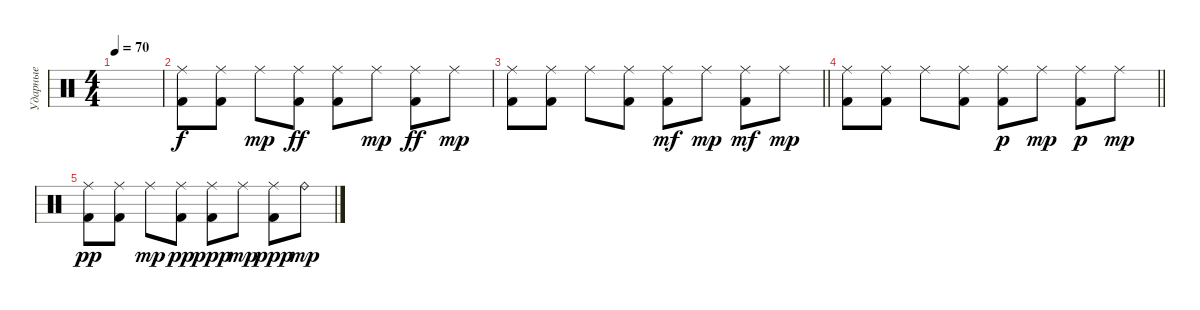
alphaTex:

\track ("Ударные" "Ударные") {instrument percussion}
\staff {score}
\articulation defaults
\ts (4 4)
\tempo 70
\clef neutral
\ks c
|
("Ride (middle)" "Kick (hit) 2").8 ("Ride (middle)" "Kick (hit) 2").8 "Ride (middle)".8{dy mp} ("Ride (middle)" "Kick (hit) 2").8{dy ff} ("Ride (middle)" "Kick (hit) 2").8 "Ride (middle)".8{dy mp} ("Ride (middle)" "Kick (hit) 2").8{dy ff} "Ride (middle)".8{dy mp} |
\barLineRight lightlight
("Ride (middle)" "Kick (hit) 2").8 ("Ride (middle)" "Kick (hit) 2").8 "Ride (middle)".8 ("Ride (middle)" "Kick (hit) 2").8 ("Ride (middle)" "Kick (hit) 2").8{dy mf} "Ride (middle)".8{dy mp} ("Ride (middle)" "Kick (hit) 2").8{dy mf} "Ride (middle)".8{dy mp} |
\barLineRight lightlight
("Ride (middle)" "Kick (hit) 2").8 ("Ride (middle)" "Kick (hit) 2").8 "Ride (middle)".8 ("Ride (middle)" "Kick (hit) 2").8 ("Ride (middle)" "Kick (hit) 2").8{dy p} "Ride (middle)".8{dy mp} ("Ride (middle)" "Kick (hit) 2").8{dy p} "Ride (middle)".8{dy mp} |
("Ride (middle)" "Kick (hit) 2").8{dy pp} ("Ride (middle)" "Kick (hit) 2").8 "Ride (middle)".8{dy mp} ("Ride (middle)" "Kick (hit) 2").8{dy pp} ("Ride (middle)" "Kick (hit) 2").8{dy ppp} "Ride (middle)".8{dy mp} ("Ride (middle)" "Kick (hit) 2").8{dy ppp} "Ride (bell)".8{dy mp}
